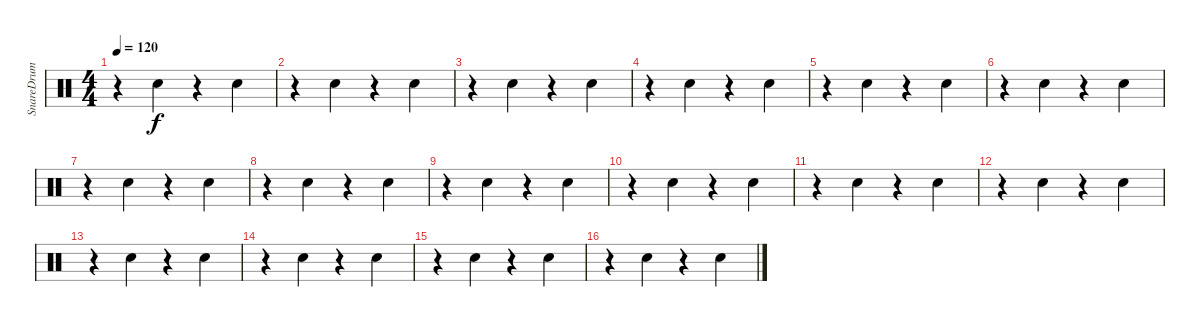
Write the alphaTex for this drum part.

\track ("SnareDrum" "SnareDrum") {instrument percussion}
\staff {score}
\articulation defaults
\ts (4 4)
\tempo 120
\clef neutral
\ks c
r.4{dy f} "Snare (hit) 2".4 r.4 "Snare (hit) 2".4 |
r.4 "Snare (hit) 2".4 r.4 "Snare (hit) 2".4 |
r.4 "Snare (hit) 2".4 r.4 "Snare (hit) 2".4 |
r.4 "Snare (hit) 2".4 r.4 "Snare (hit) 2".4 |
r.4 "Snare (hit) 2".4 r.4 "Snare (hit) 2".4 |
r.4 "Snare (hit) 2".4 r.4 "Snare (hit) 2".4 |
r.4 "Snare (hit) 2".4 r.4 "Snare (hit) 2".4 |
r.4 "Snare (hit) 2".4 r.4 "Snare (hit) 2".4 |
r.4 "Snare (hit) 2".4 r.4 "Snare (hit) 2".4 |
r.4 "Snare (hit) 2".4 r.4 "Snare (hit) 2".4 |
r.4 "Snare (hit) 2".4 r.4 "Snare (hit) 2".4 |
r.4 "Snare (hit) 2".4 r.4 "Snare (hit) 2".4 |
r.4 "Snare (hit) 2".4 r.4 "Snare (hit) 2".4 |
r.4 "Snare (hit) 2".4 r.4 "Snare (hit) 2".4 |
r.4 "Snare (hit) 2".4 r.4 "Snare (hit) 2".4 |
r.4 "Snare (hit) 2".4 r.4 "Snare (hit) 2".4
